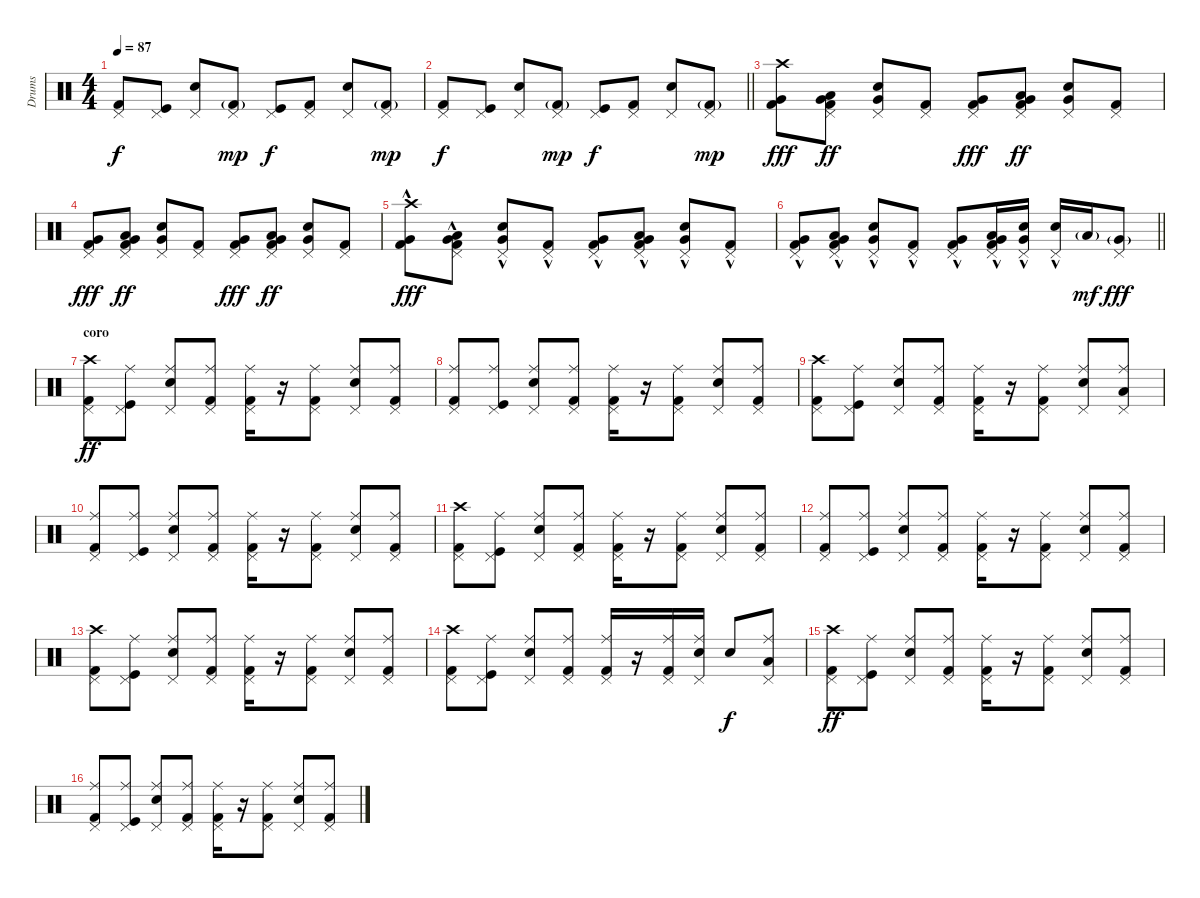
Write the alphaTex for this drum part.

\track ("Drums" "Drums") {instrument percussion}
\staff {score}
\articulation defaults
\ts (4 4)
\tempo 87
\clef neutral
\ks c
("Kick (hit) 2" "Pedal Hi-Hat (hit)").8{dy f} ("Kick (hit)" "Pedal Hi-Hat (hit)").8 ("Snare (hit) 2" "Pedal Hi-Hat (hit)").8 ("Kick (hit) 2"{g} "Pedal Hi-Hat (hit)").8{dy mp} ("Kick (hit)" "Pedal Hi-Hat (hit)").8{dy f} ("Kick (hit) 2" "Pedal Hi-Hat (hit)").8 ("Snare (hit) 2" "Pedal Hi-Hat (hit)").8 ("Kick (hit) 2"{g} "Pedal Hi-Hat (hit)").8{dy mp} |
\barLineRight lightlight
("Kick (hit) 2" "Pedal Hi-Hat (hit)").8{dy f} ("Kick (hit)" "Pedal Hi-Hat (hit)").8 ("Snare (hit) 2" "Pedal Hi-Hat (hit)").8 ("Kick (hit) 2"{g} "Pedal Hi-Hat (hit)").8{dy mp} ("Kick (hit)" "Pedal Hi-Hat (hit)").8{dy f} ("Kick (hit) 2" "Pedal Hi-Hat (hit)").8 ("Snare (hit) 2" "Pedal Hi-Hat (hit)").8 ("Kick (hit) 2"{g} "Pedal Hi-Hat (hit)").8{dy mp} |
("Very Low Tom (hit)" "Kick (hit) 2" "Crash high (hit)").8{dy fff} ("Low Tom (hit)" "Very Low Tom (hit)" "Kick (hit) 2" "Pedal Hi-Hat (hit)").8{dy ff} ("Snare (hit) 2" "Very Low Tom (hit)" "Pedal Hi-Hat (hit)").8 ("Kick (hit) 2" "Pedal Hi-Hat (hit)").8 ("Very Low Tom (hit)" "Kick (hit) 2" "Pedal Hi-Hat (hit)").8{dy fff} ("Low Tom (hit)" "Very Low Tom (hit)" "Kick (hit) 2" "Pedal Hi-Hat (hit)").8{dy ff} ("Snare (hit) 2" "Very Low Tom (hit)" "Pedal Hi-Hat (hit)").8 ("Kick (hit) 2" "Pedal Hi-Hat (hit)").8 |
("Very Low Tom (hit)" "Kick (hit) 2" "Pedal Hi-Hat (hit)").8{dy fff} ("Low Tom (hit)" "Very Low Tom (hit)" "Kick (hit) 2" "Pedal Hi-Hat (hit)").8{dy ff} ("Snare (hit) 2" "Very Low Tom (hit)" "Pedal Hi-Hat (hit)").8 ("Kick (hit) 2" "Pedal Hi-Hat (hit)").8 ("Very Low Tom (hit)" "Kick (hit) 2" "Pedal Hi-Hat (hit)").8{dy fff} ("Low Tom (hit)" "Very Low Tom (hit)" "Kick (hit) 2" "Pedal Hi-Hat (hit)").8{dy ff} ("Snare (hit) 2" "Very Low Tom (hit)" "Pedal Hi-Hat (hit)").8 ("Kick (hit) 2" "Pedal Hi-Hat (hit)").8 |
("Very Low Tom (hit)"{hac} "Kick (hit) 2"{hac} "Crash high (hit)"{hac}).8{dy fff} ("Low Tom (hit)"{hac} "Very Low Tom (hit)"{hac} "Kick (hit) 2"{hac} "Pedal Hi-Hat (hit)"{hac}).8 ("Snare (hit) 2"{hac} "Very Low Tom (hit)"{hac} "Pedal Hi-Hat (hit)"{hac}).8 ("Kick (hit) 2"{hac} "Pedal Hi-Hat (hit)"{hac}).8 ("Very Low Tom (hit)"{hac} "Kick (hit) 2"{hac} "Pedal Hi-Hat (hit)"{hac}).8 ("Low Tom (hit)"{hac} "Very Low Tom (hit)"{hac} "Kick (hit) 2"{hac} "Pedal Hi-Hat (hit)"{hac}).8 ("Snare (hit) 2"{hac} "Very Low Tom (hit)"{hac} "Pedal Hi-Hat (hit)"{hac}).8 ("Kick (hit) 2"{hac} "Pedal Hi-Hat (hit)"{hac}).8 |
\barLineRight lightlight
("Very Low Tom (hit)"{hac} "Kick (hit) 2"{hac} "Pedal Hi-Hat (hit)"{hac}).8 ("Low Tom (hit)"{hac} "Very Low Tom (hit)"{hac} "Kick (hit) 2"{hac} "Pedal Hi-Hat (hit)"{hac}).8 ("Snare (hit) 2"{hac} "Very Low Tom (hit)"{hac} "Pedal Hi-Hat (hit)"{hac}).8 ("Kick (hit) 2"{hac} "Pedal Hi-Hat (hit)"{hac}).8 ("Very Low Tom (hit)"{hac} "Kick (hit) 2"{hac} "Pedal Hi-Hat (hit)"{hac}).8 ("Low Tom (hit)" "Very Low Tom (hit)"{hac} "Kick (hit) 2"{hac} "Pedal Hi-Hat (hit)"{hac}).16 ("Snare (hit) 2" "Very Low Tom (hit)"{hac} "Pedal Hi-Hat (hit)"{hac}).16 ("Snare (hit) 2"{hac} "Pedal Hi-Hat (hit)").16 "Low Tom (hit)"{g}.16{dy mf} ("Very Low Tom (hit)"{g} "Pedal Hi-Hat (hit)").8{dy fff} |
\section ("" "coro")
("Kick (hit) 2" "Crash high (hit)" "Pedal Hi-Hat (hit)").8{dy ff} ("Kick (hit)" "Ride (middle)" "Pedal Hi-Hat (hit)").8 ("Snare (hit) 2" "Ride (middle)" "Pedal Hi-Hat (hit)").8 ("Kick (hit) 2" "Ride (middle)" "Pedal Hi-Hat (hit)").8 ("Kick (hit) 2" "Ride (middle)" "Pedal Hi-Hat (hit)").16 r.16 ("Kick (hit) 2" "Ride (middle)" "Pedal Hi-Hat (hit)").8 ("Snare (hit) 2" "Ride (middle)" "Pedal Hi-Hat (hit)").8 ("Kick (hit) 2" "Ride (middle)" "Pedal Hi-Hat (hit)").8 |
("Kick (hit) 2" "Ride (middle)" "Pedal Hi-Hat (hit)").8 ("Kick (hit)" "Ride (middle)" "Pedal Hi-Hat (hit)").8 ("Snare (hit) 2" "Ride (middle)" "Pedal Hi-Hat (hit)").8 ("Kick (hit) 2" "Ride (middle)" "Pedal Hi-Hat (hit)").8 ("Kick (hit) 2" "Ride (middle)" "Pedal Hi-Hat (hit)").16 r.16 ("Kick (hit) 2" "Ride (middle)" "Pedal Hi-Hat (hit)").8 ("Snare (hit) 2" "Ride (middle)" "Pedal Hi-Hat (hit)").8 ("Kick (hit) 2" "Ride (middle)" "Pedal Hi-Hat (hit)").8 |
("Kick (hit) 2" "Crash high (hit)" "Pedal Hi-Hat (hit)").8 ("Kick (hit)" "Ride (middle)" "Pedal Hi-Hat (hit)").8 ("Snare (hit) 2" "Ride (middle)" "Pedal Hi-Hat (hit)").8 ("Kick (hit) 2" "Ride (middle)" "Pedal Hi-Hat (hit)").8 ("Kick (hit) 2" "Ride (middle)" "Pedal Hi-Hat (hit)").16 r.16 ("Kick (hit) 2" "Ride (middle)" "Pedal Hi-Hat (hit)").8 ("Snare (hit) 2" "Ride (middle)" "Pedal Hi-Hat (hit)").8 ("Low Tom (hit)" "Ride (middle)" "Pedal Hi-Hat (hit)").8 |
("Kick (hit) 2" "Ride (middle)" "Pedal Hi-Hat (hit)").8 ("Kick (hit)" "Ride (middle)" "Pedal Hi-Hat (hit)").8 ("Snare (hit) 2" "Ride (middle)" "Pedal Hi-Hat (hit)").8 ("Kick (hit) 2" "Ride (middle)" "Pedal Hi-Hat (hit)").8 ("Kick (hit) 2" "Ride (middle)" "Pedal Hi-Hat (hit)").16 r.16 ("Kick (hit) 2" "Ride (middle)" "Pedal Hi-Hat (hit)").8 ("Snare (hit) 2" "Ride (middle)" "Pedal Hi-Hat (hit)").8 ("Kick (hit) 2" "Ride (middle)" "Pedal Hi-Hat (hit)").8 |
("Kick (hit) 2" "Crash high (hit)" "Pedal Hi-Hat (hit)").8 ("Kick (hit)" "Ride (middle)" "Pedal Hi-Hat (hit)").8 ("Snare (hit) 2" "Ride (middle)" "Pedal Hi-Hat (hit)").8 ("Kick (hit) 2" "Ride (middle)" "Pedal Hi-Hat (hit)").8 ("Kick (hit) 2" "Ride (middle)" "Pedal Hi-Hat (hit)").16 r.16 ("Kick (hit) 2" "Ride (middle)" "Pedal Hi-Hat (hit)").8 ("Snare (hit) 2" "Ride (middle)" "Pedal Hi-Hat (hit)").8 ("Kick (hit) 2" "Ride (middle)" "Pedal Hi-Hat (hit)").8 |
("Kick (hit) 2" "Ride (middle)" "Pedal Hi-Hat (hit)").8 ("Kick (hit)" "Ride (middle)" "Pedal Hi-Hat (hit)").8 ("Snare (hit) 2" "Ride (middle)" "Pedal Hi-Hat (hit)").8 ("Kick (hit) 2" "Ride (middle)" "Pedal Hi-Hat (hit)").8 ("Kick (hit) 2" "Ride (middle)" "Pedal Hi-Hat (hit)").16 r.16 ("Kick (hit) 2" "Ride (middle)" "Pedal Hi-Hat (hit)").8 ("Snare (hit) 2" "Ride (middle)" "Pedal Hi-Hat (hit)").8 ("Kick (hit) 2" "Ride (middle)" "Pedal Hi-Hat (hit)").8 |
("Kick (hit) 2" "Crash high (hit)" "Pedal Hi-Hat (hit)").8 ("Kick (hit)" "Ride (middle)" "Pedal Hi-Hat (hit)").8 ("Snare (hit) 2" "Ride (middle)" "Pedal Hi-Hat (hit)").8 ("Kick (hit) 2" "Ride (middle)" "Pedal Hi-Hat (hit)").8 ("Kick (hit) 2" "Ride (middle)" "Pedal Hi-Hat (hit)").16 r.16 ("Kick (hit) 2" "Ride (middle)" "Pedal Hi-Hat (hit)").8 ("Snare (hit) 2" "Ride (middle)" "Pedal Hi-Hat (hit)").8 ("Kick (hit) 2" "Ride (middle)" "Pedal Hi-Hat (hit)").8 |
("Kick (hit) 2" "Crash high (hit)" "Pedal Hi-Hat (hit)").8 ("Kick (hit)" "Ride (middle)" "Pedal Hi-Hat (hit)").8 ("Snare (hit) 2" "Ride (middle)" "Pedal Hi-Hat (hit)").8 ("Kick (hit) 2" "Ride (middle)" "Pedal Hi-Hat (hit)").8 ("Kick (hit) 2" "Ride (middle)" "Pedal Hi-Hat (hit)").16 r.16 ("Kick (hit) 2" "Ride (middle)" "Pedal Hi-Hat (hit)").16 ("Snare (hit) 2" "Ride (middle)" "Pedal Hi-Hat (hit)").16 "Snare (hit) 2".8{dy f} ("Low Tom (hit)" "Ride (middle)" "Pedal Hi-Hat (hit)").8 |
("Kick (hit) 2" "Crash high (hit)" "Pedal Hi-Hat (hit)").8{dy ff} ("Kick (hit)" "Ride (middle)" "Pedal Hi-Hat (hit)").8 ("Snare (hit) 2" "Ride (middle)" "Pedal Hi-Hat (hit)").8 ("Kick (hit) 2" "Ride (middle)" "Pedal Hi-Hat (hit)").8 ("Kick (hit) 2" "Ride (middle)" "Pedal Hi-Hat (hit)").16 r.16 ("Kick (hit) 2" "Ride (middle)" "Pedal Hi-Hat (hit)").8 ("Snare (hit) 2" "Ride (middle)" "Pedal Hi-Hat (hit)").8 ("Kick (hit) 2" "Ride (middle)" "Pedal Hi-Hat (hit)").8 |
("Kick (hit) 2" "Ride (middle)" "Pedal Hi-Hat (hit)").8 ("Kick (hit)" "Ride (middle)" "Pedal Hi-Hat (hit)").8 ("Snare (hit) 2" "Ride (middle)" "Pedal Hi-Hat (hit)").8 ("Kick (hit) 2" "Ride (middle)" "Pedal Hi-Hat (hit)").8 ("Kick (hit) 2" "Ride (middle)" "Pedal Hi-Hat (hit)").16 r.16 ("Kick (hit) 2" "Ride (middle)" "Pedal Hi-Hat (hit)").8 ("Snare (hit) 2" "Ride (middle)" "Pedal Hi-Hat (hit)").8 ("Kick (hit) 2" "Ride (middle)" "Pedal Hi-Hat (hit)").8
